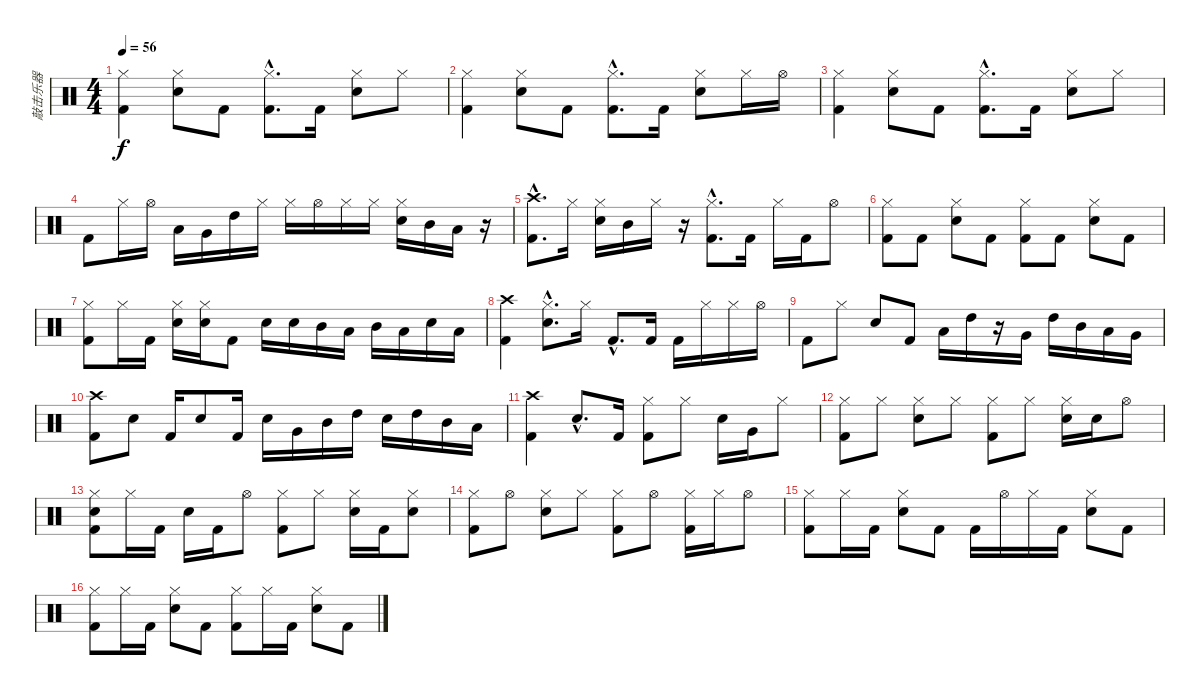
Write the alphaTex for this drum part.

\track ("敲击乐器" "敲击乐器") {instrument percussion}
\staff {score}
\articulation defaults
\ts (4 4)
\tempo 56
\clef neutral
\ks c
("Hi-Hat (closed)" "Kick (hit) 2").4{dy f} ("Hi-Hat (closed)" "Electric Snare (hit)").8 "Kick (hit) 2".8 ("Hi-Hat (closed)"{hac} "Kick (hit) 2"{hac}).8{d} "Kick (hit) 2".16 ("Hi-Hat (closed)" "Electric Snare (hit)").8 "Hi-Hat (closed)".8 |
("Hi-Hat (closed)" "Kick (hit) 2").4 ("Hi-Hat (closed)" "Electric Snare (hit)").8 "Kick (hit) 2".8 ("Hi-Hat (closed)"{hac} "Kick (hit) 2"{hac}).8{d} "Kick (hit) 2".16 ("Hi-Hat (closed)" "Electric Snare (hit)").8 "Hi-Hat (closed)".16 "Hi-Hat (open)".16 |
("Hi-Hat (closed)" "Kick (hit) 2").4 ("Hi-Hat (closed)" "Electric Snare (hit)").8 "Kick (hit) 2".8 ("Hi-Hat (closed)"{hac} "Kick (hit) 2"{hac}).8{d} "Kick (hit) 2".16 ("Hi-Hat (closed)" "Electric Snare (hit)").8 "Hi-Hat (closed)".8 |
"Kick (hit) 2".8 "Hi-Hat (closed)".16 "Hi-Hat (open)".16 "Low Tom (hit)".16 "Very Low Tom (hit)".16 "High Tom (hit)".16 "Hi-Hat (closed)".16 "Hi-Hat (closed)".16 "Hi-Hat (open)".16 "Hi-Hat (closed)".16 "Hi-Hat (closed)".16 ("Hi-Hat (closed)" "Snare (hit) 2").16 "Mid Tom (hit)".16 "Low Tom (hit)".16 r.16 |
("Crash high (hit)"{hac} "Kick (hit) 2"{hac}).8{d} "Hi-Hat (closed)".16 ("Hi-Hat (closed)" "Electric Snare (hit)").16 "Mid Tom (hit)".16 "Hi-Hat (closed)".16 r.16 ("Hi-Hat (closed)"{hac} "Kick (hit) 2"{hac}).8{d} "Kick (hit) 2".16 "Hi-Hat (closed)".16 "Kick (hit) 2".16 "Hi-Hat (open)".8 |
("Hi-Hat (closed)" "Kick (hit) 2").8 "Kick (hit) 2".8 ("Hi-Hat (closed)" "Electric Snare (hit)").8 "Kick (hit) 2".8 ("Hi-Hat (closed)" "Kick (hit) 2").8 "Kick (hit) 2".8 ("Hi-Hat (closed)" "Electric Snare (hit)").8 "Kick (hit) 2".8 |
("Hi-Hat (closed)" "Kick (hit) 2").8 "Hi-Hat (closed)".16 "Kick (hit) 2".16 ("Electric Snare (hit)" "Hi-Hat (closed)").16 ("Electric Snare (hit)" "Hi-Hat (closed)").16 "Kick (hit) 2".8 "Snare (hit) 2".16 "Electric Snare (hit)".16 "Mid Tom (hit)".16 "Low Tom (hit)".16 "Mid Tom (hit)".16 "Low Tom (hit)".16 "Snare (hit) 2".16 "Low Floor Tom (hit)".16 |
("Crash high (hit)" "Kick (hit) 2").4 ("Hi-Hat (closed)"{hac} "Electric Snare (hit)"{hac}).8{d} "Hi-Hat (closed)".16 "Kick (hit) 2"{hac}.8{d} "Kick (hit) 2".16 "Kick (hit) 2".16 "Hi-Hat (closed)".16 "Hi-Hat (closed)".16 "Hi-Hat (open)".16 |
"Kick (hit) 2".8 "Hi-Hat (closed)".8 "Electric Snare (hit)".8 "Kick (hit) 2".8 "Low Floor Tom (hit)".16 "High Tom (hit)".16 r.16 "Very Low Tom (hit)".16 "High Tom (hit)".16 "Mid Tom (hit)".16 "Low Tom (hit)".16 "Very Low Tom (hit)".16 |
("Crash high (hit)" "Kick (hit) 2").8 "Electric Snare (hit)".8 "Kick (hit) 2".16 "Electric Snare (hit)".8 "Kick (hit) 2".16 "Electric Snare (hit)".16 "Very Low Tom (hit)".16 "Mid Tom (hit)".16 "High Tom (hit)".16 "Electric Snare (hit)".16 "High Tom (hit)".16 "Mid Tom (hit)".16 "Low Tom (hit)".16 |
("Crash high (hit)" "Kick (hit) 2").4 "Electric Snare (hit)"{hac}.8{d} "Kick (hit) 2".16 ("Hi-Hat (closed)" "Kick (hit) 2").8 "Hi-Hat (closed)".8 "Electric Snare (hit)".16 "Very Low Tom (hit)".16 "Hi-Hat (closed)".8 |
("Hi-Hat (closed)" "Kick (hit) 2").8 "Hi-Hat (closed)".8 ("Hi-Hat (closed)" "Electric Snare (hit)").8 "Hi-Hat (closed)".8 ("Hi-Hat (closed)" "Kick (hit) 2").8 "Hi-Hat (closed)".8 ("Hi-Hat (closed)" "Electric Snare (hit)").16 "Electric Snare (hit)".16 "Hi-Hat (open)".8 |
("Electric Snare (hit)" "Hi-Hat (closed)" "Kick (hit) 2").8 "Hi-Hat (closed)".16 "Kick (hit) 2".16 "Electric Snare (hit)".16 "Kick (hit) 2".16 "Hi-Hat (open)".8 ("Hi-Hat (closed)" "Kick (hit) 2").8 "Hi-Hat (closed)".8 ("Hi-Hat (closed)" "Electric Snare (hit)").16 "Kick (hit) 2".16 ("Hi-Hat (closed)" "Electric Snare (hit)").8 |
("Hi-Hat (closed)" "Kick (hit) 2").8 "Hi-Hat (open)".8 ("Electric Snare (hit)" "Hi-Hat (closed)").8 "Hi-Hat (closed)".8 ("Hi-Hat (closed)" "Kick (hit) 2").8 "Hi-Hat (open)".8 ("Hi-Hat (closed)" "Kick (hit) 2").16 "Hi-Hat (closed)".16 "Hi-Hat (open)".8 |
("Hi-Hat (closed)" "Kick (hit) 2").8 "Hi-Hat (closed)".16 "Kick (hit) 2".16 ("Hi-Hat (closed)" "Electric Snare (hit)").8 "Kick (hit) 2".8 "Kick (hit) 2".16 "Hi-Hat (open)".16 "Hi-Hat (closed)".16 "Kick (hit) 2".16 ("Hi-Hat (closed)" "Electric Snare (hit)").8 "Kick (hit) 2".8 |
("Hi-Hat (closed)" "Kick (hit) 2").8 "Hi-Hat (closed)".16 "Kick (hit) 2".16 ("Hi-Hat (closed)" "Electric Snare (hit)").8 "Kick (hit) 2".8 ("Hi-Hat (closed)" "Kick (hit) 2").8 "Hi-Hat (closed)".16 "Kick (hit) 2".16 ("Hi-Hat (closed)" "Electric Snare (hit)").8 "Kick (hit) 2".8
